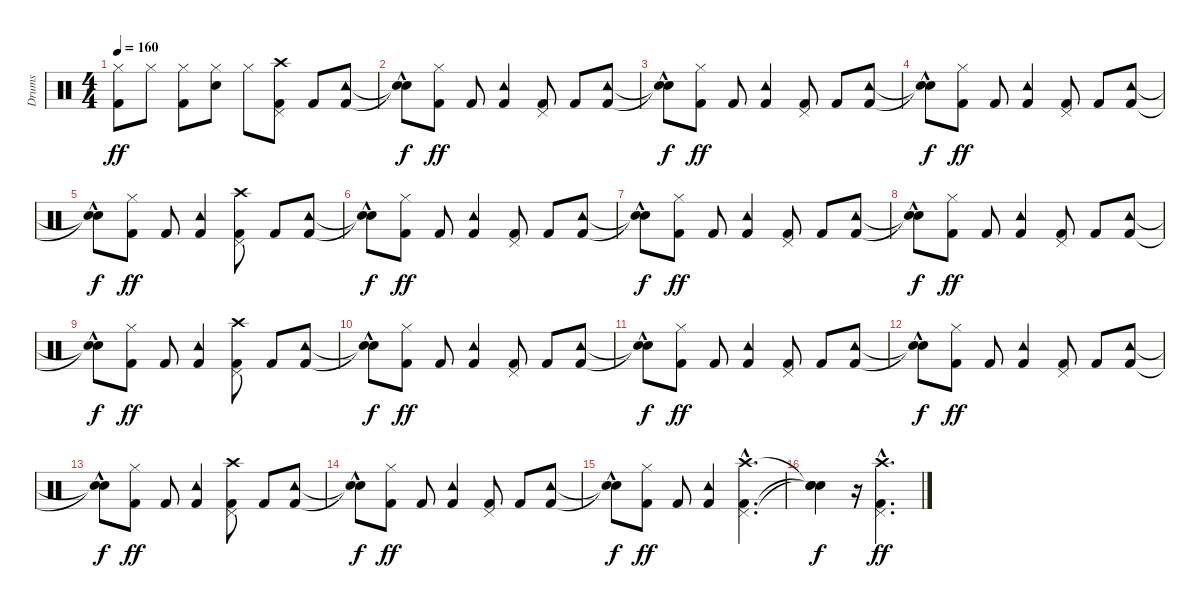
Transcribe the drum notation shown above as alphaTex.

\track ("Drums" "Drums") {instrument percussion}
\staff {score}
\articulation defaults
\ts (4 4)
\tempo 160
\clef neutral
\ks c
("Kick (hit) 2" "Hi-Hat (closed)").8{dy ff} "Hi-Hat (closed)".8 ("Kick (hit) 2" "Hi-Hat (closed)").8 ("Snare (hit) 2" "Hi-Hat (closed)").8 "Hi-Hat (closed)".8 ("Kick (hit) 2" "Pedal Hi-Hat (hit)" "Crash high (hit)").8 "Kick (hit) 2".8 ("Kick (hit) 2" "Tambourine (hit)").8 |
("Snare (hit)"{hac t} "Snare (hit)"{hac t}).8{dy f} ("Kick (hit) 2" "Hi-Hat (closed)").8{dy ff} "Kick (hit) 2".8 ("Kick (hit) 2" "Tambourine (hit)").4 ("Kick (hit) 2" "Pedal Hi-Hat (hit)").8 "Kick (hit) 2".8 ("Kick (hit) 2" "Tambourine (hit)").8 |
("Snare (hit)"{hac t} "Snare (hit)"{hac t}).8{dy f} ("Kick (hit) 2" "Hi-Hat (closed)").8{dy ff} "Kick (hit) 2".8 ("Kick (hit) 2" "Tambourine (hit)").4 ("Kick (hit) 2" "Pedal Hi-Hat (hit)").8 "Kick (hit) 2".8 ("Kick (hit) 2" "Tambourine (hit)").8 |
("Snare (hit)"{hac t} "Snare (hit)"{hac t}).8{dy f} ("Kick (hit) 2" "Hi-Hat (closed)").8{dy ff} "Kick (hit) 2".8 ("Kick (hit) 2" "Tambourine (hit)").4 ("Kick (hit) 2" "Pedal Hi-Hat (hit)").8 "Kick (hit) 2".8 ("Kick (hit) 2" "Tambourine (hit)").8 |
("Snare (hit)"{hac t} "Snare (hit)"{hac t}).8{dy f} ("Kick (hit) 2" "Hi-Hat (closed)").8{dy ff} "Kick (hit) 2".8 ("Kick (hit) 2" "Tambourine (hit)").4 ("Kick (hit) 2" "Pedal Hi-Hat (hit)" "Crash high (hit)").8 "Kick (hit) 2".8 ("Kick (hit) 2" "Tambourine (hit)").8 |
("Snare (hit)"{hac t} "Snare (hit)"{hac t}).8{dy f} ("Kick (hit) 2" "Hi-Hat (closed)").8{dy ff} "Kick (hit) 2".8 ("Kick (hit) 2" "Tambourine (hit)").4 ("Kick (hit) 2" "Pedal Hi-Hat (hit)").8 "Kick (hit) 2".8 ("Kick (hit) 2" "Tambourine (hit)").8 |
("Snare (hit)"{hac t} "Snare (hit)"{hac t}).8{dy f} ("Kick (hit) 2" "Hi-Hat (closed)").8{dy ff} "Kick (hit) 2".8 ("Kick (hit) 2" "Tambourine (hit)").4 ("Kick (hit) 2" "Pedal Hi-Hat (hit)").8 "Kick (hit) 2".8 ("Kick (hit) 2" "Tambourine (hit)").8 |
("Snare (hit)"{hac t} "Snare (hit)"{hac t}).8{dy f} ("Kick (hit) 2" "Hi-Hat (closed)").8{dy ff} "Kick (hit) 2".8 ("Kick (hit) 2" "Tambourine (hit)").4 ("Kick (hit) 2" "Pedal Hi-Hat (hit)").8 "Kick (hit) 2".8 ("Kick (hit) 2" "Tambourine (hit)").8 |
("Snare (hit)"{hac t} "Snare (hit)"{hac t}).8{dy f} ("Kick (hit) 2" "Hi-Hat (closed)").8{dy ff} "Kick (hit) 2".8 ("Kick (hit) 2" "Tambourine (hit)").4 ("Kick (hit) 2" "Pedal Hi-Hat (hit)" "Crash high (hit)").8 "Kick (hit) 2".8 ("Kick (hit) 2" "Tambourine (hit)").8 |
("Snare (hit)"{hac t} "Snare (hit)"{hac t}).8{dy f} ("Kick (hit) 2" "Hi-Hat (closed)").8{dy ff} "Kick (hit) 2".8 ("Kick (hit) 2" "Tambourine (hit)").4 ("Kick (hit) 2" "Pedal Hi-Hat (hit)").8 "Kick (hit) 2".8 ("Kick (hit) 2" "Tambourine (hit)").8 |
("Snare (hit)"{hac t} "Snare (hit)"{hac t}).8{dy f} ("Kick (hit) 2" "Hi-Hat (closed)").8{dy ff} "Kick (hit) 2".8 ("Kick (hit) 2" "Tambourine (hit)").4 ("Kick (hit) 2" "Pedal Hi-Hat (hit)").8 "Kick (hit) 2".8 ("Kick (hit) 2" "Tambourine (hit)").8 |
("Snare (hit)"{hac t} "Snare (hit)"{hac t}).8{dy f} ("Kick (hit) 2" "Hi-Hat (closed)").8{dy ff} "Kick (hit) 2".8 ("Kick (hit) 2" "Tambourine (hit)").4 ("Kick (hit) 2" "Pedal Hi-Hat (hit)").8 "Kick (hit) 2".8 ("Kick (hit) 2" "Tambourine (hit)").8 |
("Snare (hit)"{hac t} "Snare (hit)"{hac t}).8{dy f} ("Kick (hit) 2" "Hi-Hat (closed)").8{dy ff} "Kick (hit) 2".8 ("Kick (hit) 2" "Tambourine (hit)").4 ("Kick (hit) 2" "Pedal Hi-Hat (hit)" "Crash high (hit)").8 "Kick (hit) 2".8 ("Kick (hit) 2" "Tambourine (hit)").8 |
("Snare (hit)"{hac t} "Snare (hit)"{hac t}).8{dy f} ("Kick (hit) 2" "Hi-Hat (closed)").8{dy ff} "Kick (hit) 2".8 ("Kick (hit) 2" "Tambourine (hit)").4 ("Kick (hit) 2" "Pedal Hi-Hat (hit)").8 "Kick (hit) 2".8 ("Kick (hit) 2" "Tambourine (hit)").8 |
("Snare (hit)"{hac t} "Snare (hit)"{hac t}).8{dy f} ("Kick (hit) 2" "Hi-Hat (closed)").8{dy ff} "Kick (hit) 2".8 ("Kick (hit) 2" "Tambourine (hit)").4 ("Kick (hit) 2"{hac} "Pedal Hi-Hat (hit)"{hac} "Crash high (hit)"{hac}).4{d} |
("Snare (hit)"{t} "Snare (hit)"{t} "Snare (hit)"{t}).4{dy f} r.16 ("Kick (hit) 2"{hac} "Pedal Hi-Hat (hit)"{hac} "Crash high (hit)"{hac}).4{d dy ff}
